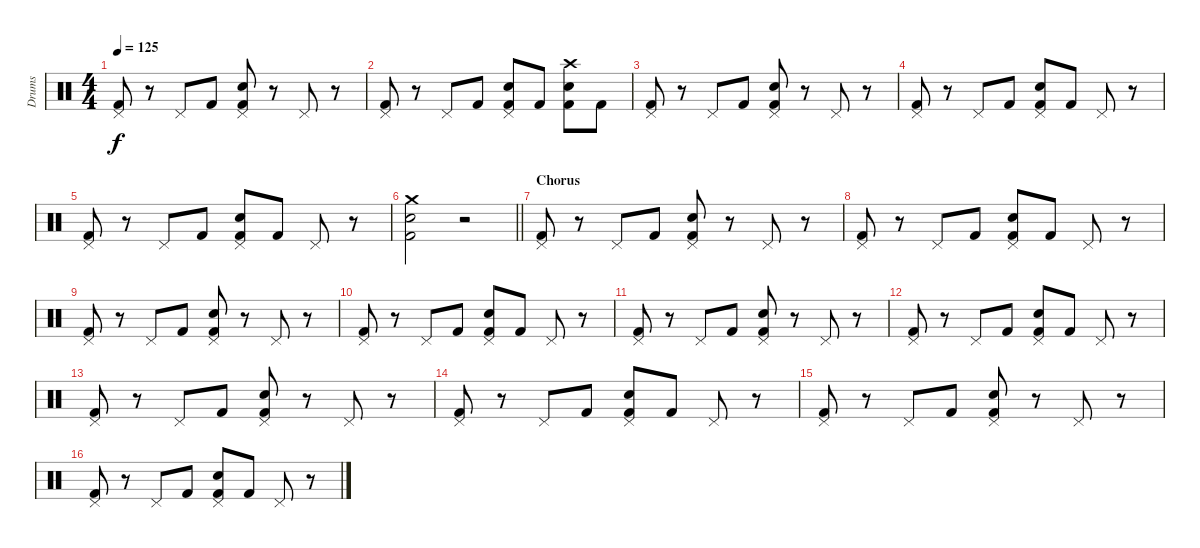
\track ("Drums" "Drums") {instrument percussion}
\staff {score}
\articulation defaults
\ts (4 4)
\tempo 125
\clef neutral
\ks c
("Pedal Hi-Hat (hit)" "Kick (hit) 2").8{dy f} r.8 "Pedal Hi-Hat (hit)".8 "Kick (hit) 2".8 ("Pedal Hi-Hat (hit)" "Electric Snare (hit)" "Kick (hit) 2").8 r.8 "Pedal Hi-Hat (hit)".8 r.8 |
("Pedal Hi-Hat (hit)" "Kick (hit) 2").8 r.8 "Pedal Hi-Hat (hit)".8 "Kick (hit) 2".8 ("Pedal Hi-Hat (hit)" "Electric Snare (hit)" "Kick (hit) 2").8 "Kick (hit) 2".8 ("Crash high (hit)" "Electric Snare (hit)" "Kick (hit) 2").8 "Kick (hit) 2".8 |
("Pedal Hi-Hat (hit)" "Kick (hit) 2").8 r.8 "Pedal Hi-Hat (hit)".8 "Kick (hit) 2".8 ("Pedal Hi-Hat (hit)" "Electric Snare (hit)" "Kick (hit) 2").8 r.8 "Pedal Hi-Hat (hit)".8 r.8 |
("Pedal Hi-Hat (hit)" "Kick (hit) 2").8 r.8 "Pedal Hi-Hat (hit)".8 "Kick (hit) 2".8 ("Pedal Hi-Hat (hit)" "Electric Snare (hit)" "Kick (hit) 2").8 "Kick (hit) 2".8 "Pedal Hi-Hat (hit)".8 r.8 |
("Pedal Hi-Hat (hit)" "Kick (hit) 2").8 r.8 "Pedal Hi-Hat (hit)".8 "Kick (hit) 2".8 ("Pedal Hi-Hat (hit)" "Electric Snare (hit)" "Kick (hit) 2").8 "Kick (hit) 2".8 "Pedal Hi-Hat (hit)".8 r.8 |
\barLineRight lightlight
("Crash medium (hit)" "Electric Snare (hit)" "Kick (hit) 2").2 r.2 |
\section ("" "Chorus")
("Pedal Hi-Hat (hit)" "Kick (hit) 2").8 r.8 "Pedal Hi-Hat (hit)".8 "Kick (hit) 2".8 ("Pedal Hi-Hat (hit)" "Electric Snare (hit)" "Kick (hit) 2").8 r.8 "Pedal Hi-Hat (hit)".8 r.8 |
("Pedal Hi-Hat (hit)" "Kick (hit) 2").8 r.8 "Pedal Hi-Hat (hit)".8 "Kick (hit) 2".8 ("Pedal Hi-Hat (hit)" "Electric Snare (hit)" "Kick (hit) 2").8 "Kick (hit) 2".8 "Pedal Hi-Hat (hit)".8 r.8 |
("Pedal Hi-Hat (hit)" "Kick (hit) 2").8 r.8 "Pedal Hi-Hat (hit)".8 "Kick (hit) 2".8 ("Pedal Hi-Hat (hit)" "Electric Snare (hit)" "Kick (hit) 2").8 r.8 "Pedal Hi-Hat (hit)".8 r.8 |
("Pedal Hi-Hat (hit)" "Kick (hit) 2").8 r.8 "Pedal Hi-Hat (hit)".8 "Kick (hit) 2".8 ("Pedal Hi-Hat (hit)" "Electric Snare (hit)" "Kick (hit) 2").8 "Kick (hit) 2".8 "Pedal Hi-Hat (hit)".8 r.8 |
("Pedal Hi-Hat (hit)" "Kick (hit) 2").8 r.8 "Pedal Hi-Hat (hit)".8 "Kick (hit) 2".8 ("Pedal Hi-Hat (hit)" "Electric Snare (hit)" "Kick (hit) 2").8 r.8 "Pedal Hi-Hat (hit)".8 r.8 |
("Pedal Hi-Hat (hit)" "Kick (hit) 2").8 r.8 "Pedal Hi-Hat (hit)".8 "Kick (hit) 2".8 ("Pedal Hi-Hat (hit)" "Electric Snare (hit)" "Kick (hit) 2").8 "Kick (hit) 2".8 "Pedal Hi-Hat (hit)".8 r.8 |
("Pedal Hi-Hat (hit)" "Kick (hit) 2").8 r.8 "Pedal Hi-Hat (hit)".8 "Kick (hit) 2".8 ("Pedal Hi-Hat (hit)" "Electric Snare (hit)" "Kick (hit) 2").8 r.8 "Pedal Hi-Hat (hit)".8 r.8 |
("Pedal Hi-Hat (hit)" "Kick (hit) 2").8 r.8 "Pedal Hi-Hat (hit)".8 "Kick (hit) 2".8 ("Pedal Hi-Hat (hit)" "Electric Snare (hit)" "Kick (hit) 2").8 "Kick (hit) 2".8 "Pedal Hi-Hat (hit)".8 r.8 |
("Pedal Hi-Hat (hit)" "Kick (hit) 2").8 r.8 "Pedal Hi-Hat (hit)".8 "Kick (hit) 2".8 ("Pedal Hi-Hat (hit)" "Electric Snare (hit)" "Kick (hit) 2").8 r.8 "Pedal Hi-Hat (hit)".8 r.8 |
("Pedal Hi-Hat (hit)" "Kick (hit) 2").8 r.8 "Pedal Hi-Hat (hit)".8 "Kick (hit) 2".8 ("Pedal Hi-Hat (hit)" "Electric Snare (hit)" "Kick (hit) 2").8 "Kick (hit) 2".8 "Pedal Hi-Hat (hit)".8 r.8
